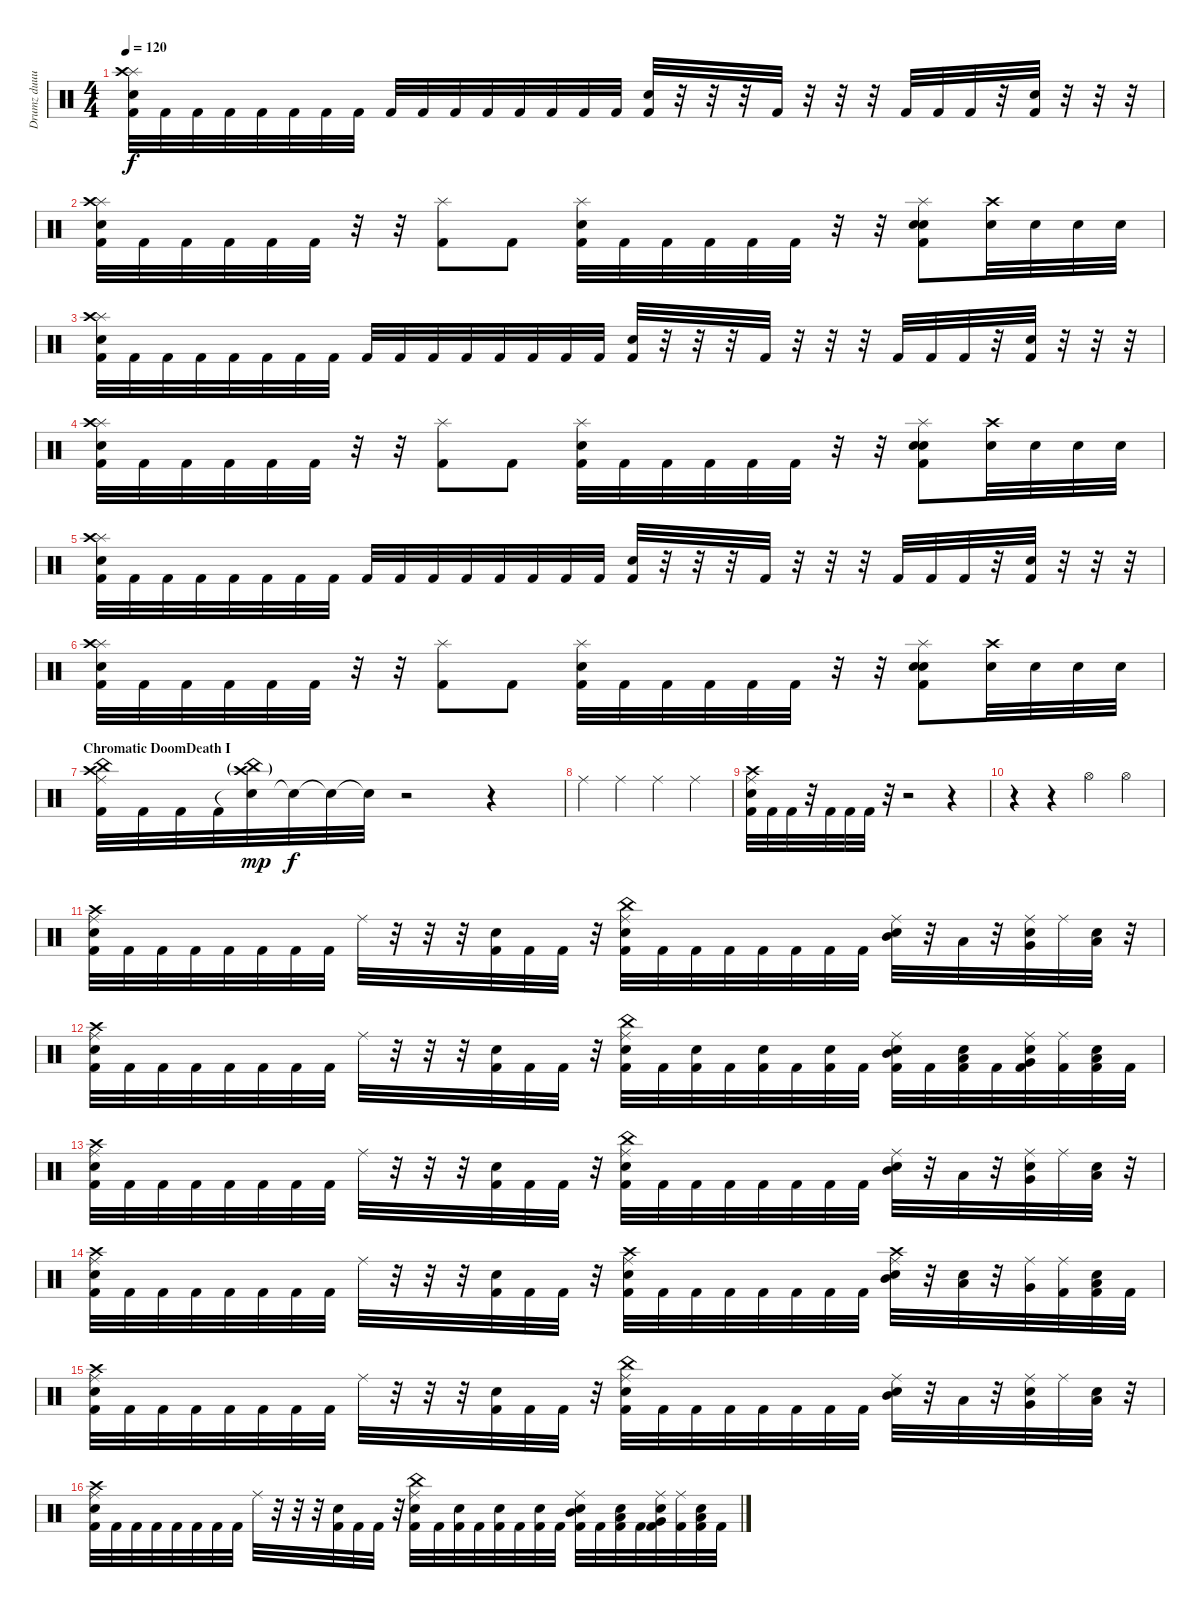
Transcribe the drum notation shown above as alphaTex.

\track ("Drumz duuuuude" "Drumz duuu") {instrument percussion}
\staff {score}
\articulation defaults
\ts (4 4)
\tempo 120
\clef neutral
\ks c
("Splash (hit)" "Kick (hit) 2" "Crash high (hit)" "Electric Snare (hit)").32{dy f} "Kick (hit) 2".32 "Kick (hit) 2".32 "Kick (hit) 2".32 "Kick (hit) 2".32 "Kick (hit) 2".32 "Kick (hit) 2".32 "Kick (hit) 2".32 "Kick (hit) 2".32 "Kick (hit) 2".32 "Kick (hit) 2".32 "Kick (hit) 2".32 "Kick (hit) 2".32 "Kick (hit) 2".32 "Kick (hit) 2".32 "Kick (hit) 2".32 ("Kick (hit) 2" "Snare (hit) 2").32 r.32 r.32 r.32 "Kick (hit) 2".32 r.32 r.32 r.32 "Kick (hit) 2".32 "Kick (hit) 2".32 "Kick (hit) 2".32 r.32 ("Kick (hit) 2" "Snare (hit) 2").32 r.32 r.32 r.32 |
("Splash (hit)" "Kick (hit) 2" "Crash high (hit)" "Snare (hit) 2").32 "Kick (hit) 2".32 "Kick (hit) 2".32 "Kick (hit) 2".32 "Kick (hit) 2".32 "Kick (hit) 2".32 r.32 r.32 ("Splash (hit)" "Kick (hit) 2").8 "Kick (hit) 2".8 ("Splash (hit)" "Kick (hit) 2" "Snare (hit) 2").32 "Kick (hit) 2".32 "Kick (hit) 2".32 "Kick (hit) 2".32 "Kick (hit) 2".32 "Kick (hit) 2".32 r.32 r.32 ("Splash (hit)" "Kick (hit) 2" "Electric Snare (hit)" "Snare (hit) 2").8 ("Crash high (hit)" "Electric Snare (hit)").32 "Electric Snare (hit)".32 "Electric Snare (hit)".32 "Electric Snare (hit)".32 |
("Splash (hit)" "Kick (hit) 2" "Crash high (hit)" "Electric Snare (hit)").32 "Kick (hit) 2".32 "Kick (hit) 2".32 "Kick (hit) 2".32 "Kick (hit) 2".32 "Kick (hit) 2".32 "Kick (hit) 2".32 "Kick (hit) 2".32 "Kick (hit) 2".32 "Kick (hit) 2".32 "Kick (hit) 2".32 "Kick (hit) 2".32 "Kick (hit) 2".32 "Kick (hit) 2".32 "Kick (hit) 2".32 "Kick (hit) 2".32 ("Kick (hit) 2" "Snare (hit) 2").32 r.32 r.32 r.32 "Kick (hit) 2".32 r.32 r.32 r.32 "Kick (hit) 2".32 "Kick (hit) 2".32 "Kick (hit) 2".32 r.32 ("Kick (hit) 2" "Snare (hit) 2").32 r.32 r.32 r.32 |
("Splash (hit)" "Kick (hit) 2" "Crash high (hit)" "Snare (hit) 2").32 "Kick (hit) 2".32 "Kick (hit) 2".32 "Kick (hit) 2".32 "Kick (hit) 2".32 "Kick (hit) 2".32 r.32 r.32 ("Splash (hit)" "Kick (hit) 2").8 "Kick (hit) 2".8 ("Splash (hit)" "Kick (hit) 2" "Snare (hit) 2").32 "Kick (hit) 2".32 "Kick (hit) 2".32 "Kick (hit) 2".32 "Kick (hit) 2".32 "Kick (hit) 2".32 r.32 r.32 ("Splash (hit)" "Kick (hit) 2" "Electric Snare (hit)" "Snare (hit) 2").8 ("Crash high (hit)" "Electric Snare (hit)").32 "Electric Snare (hit)".32 "Electric Snare (hit)".32 "Electric Snare (hit)".32 |
("Splash (hit)" "Kick (hit) 2" "Crash high (hit)" "Electric Snare (hit)").32 "Kick (hit) 2".32 "Kick (hit) 2".32 "Kick (hit) 2".32 "Kick (hit) 2".32 "Kick (hit) 2".32 "Kick (hit) 2".32 "Kick (hit) 2".32 "Kick (hit) 2".32 "Kick (hit) 2".32 "Kick (hit) 2".32 "Kick (hit) 2".32 "Kick (hit) 2".32 "Kick (hit) 2".32 "Kick (hit) 2".32 "Kick (hit) 2".32 ("Kick (hit) 2" "Snare (hit) 2").32 r.32 r.32 r.32 "Kick (hit) 2".32 r.32 r.32 r.32 "Kick (hit) 2".32 "Kick (hit) 2".32 "Kick (hit) 2".32 r.32 ("Kick (hit) 2" "Snare (hit) 2").32 r.32 r.32 r.32 |
("Splash (hit)" "Kick (hit) 2" "Crash high (hit)" "Snare (hit) 2").32 "Kick (hit) 2".32 "Kick (hit) 2".32 "Kick (hit) 2".32 "Kick (hit) 2".32 "Kick (hit) 2".32 r.32 r.32 ("Splash (hit)" "Kick (hit) 2").8 "Kick (hit) 2".8 ("Splash (hit)" "Kick (hit) 2" "Snare (hit) 2").32 "Kick (hit) 2".32 "Kick (hit) 2".32 "Kick (hit) 2".32 "Kick (hit) 2".32 "Kick (hit) 2".32 r.32 r.32 ("Splash (hit)" "Kick (hit) 2" "Electric Snare (hit)" "Snare (hit) 2").8 ("Crash high (hit)" "Electric Snare (hit)").32 "Electric Snare (hit)".32 "Electric Snare (hit)".32 "Electric Snare (hit)".32 |
\section ("" "Chromatic DoomDeath I")
("Ride (middle)" "Kick (hit) 2" "China (hit)" "Crash high (hit)").32 "Kick (hit) 2".32 "Kick (hit) 2".32 "Kick (hit) 2".32 ("Snare (hit)"{t} "China (hit)"{g} "Crash high (hit)"{g}).32{dy mp} "Snare (hit)"{t}.32{dy f} "Snare (hit)"{t}.32 "Snare (hit)"{t}.32 r.2 r.4 |
"Ride (middle)".4 "Ride (middle)".4 "Ride (middle)".4 "Ride (middle)".4 |
("Ride (middle)" "Kick (hit) 2" "Crash high (hit)" "Snare (hit) 2").32 "Kick (hit) 2".32 "Kick (hit) 2".32 r.32 "Kick (hit) 2".32 "Kick (hit) 2".32 "Kick (hit) 2".32 r.32 r.2 r.4 |
r.4 r.4 "Hi-Hat (open)".4 "Hi-Hat (open)".4 |
("Crash high (hit)" "Kick (hit) 2" "Ride (middle)" "Electric Snare (hit)").32 "Kick (hit) 2".32 "Kick (hit) 2".32 "Kick (hit) 2".32 "Kick (hit) 2".32 "Kick (hit) 2".32 "Kick (hit) 2".32 "Kick (hit) 2".32 "Ride (middle)".32 r.32 r.32 r.32 ("Kick (hit) 2" "Electric Snare (hit)").32 "Kick (hit) 2".32 "Kick (hit) 2".32 r.32 ("China (hit)" "Kick (hit) 2" "Ride (middle)" "Electric Snare (hit)").32 "Kick (hit) 2".32 "Kick (hit) 2".32 "Kick (hit) 2".32 "Kick (hit) 2".32 "Kick (hit) 2".32 "Kick (hit) 2".32 "Kick (hit) 2".32 ("Electric Snare (hit)" "Ride (middle)" "Mid Tom (hit)").32 r.32 "Low Tom (hit)".32 r.32 ("Electric Snare (hit)" "Ride (middle)" "Very Low Tom (hit)").32 "Ride (middle)".32 ("Electric Snare (hit)" "Low Floor Tom (hit)").32 r.32 |
("Crash high (hit)" "Kick (hit) 2" "Ride (middle)" "Electric Snare (hit)").32 "Kick (hit) 2".32 "Kick (hit) 2".32 "Kick (hit) 2".32 "Kick (hit) 2".32 "Kick (hit) 2".32 "Kick (hit) 2".32 "Kick (hit) 2".32 "Ride (middle)".32 r.32 r.32 r.32 ("Kick (hit) 2" "Electric Snare (hit)").32 "Kick (hit) 2".32 "Kick (hit) 2".32 r.32 ("China (hit)" "Kick (hit) 2" "Ride (middle)" "Electric Snare (hit)").32 "Kick (hit) 2".32 ("Electric Snare (hit)" "Kick (hit) 2").32 "Kick (hit) 2".32 ("Electric Snare (hit)" "Kick (hit) 2").32 "Kick (hit) 2".32 ("Electric Snare (hit)" "Kick (hit) 2").32 "Kick (hit) 2".32 ("Electric Snare (hit)" "Kick (hit) 2" "Ride (middle)" "Mid Tom (hit)").32 "Kick (hit) 2".32 ("Electric Snare (hit)" "Kick (hit) 2" "Low Tom (hit)").32 "Kick (hit) 2".32 ("Electric Snare (hit)" "Kick (hit) 2" "Ride (middle)" "Very Low Tom (hit)").32 ("Kick (hit) 2" "Ride (middle)").32 ("Electric Snare (hit)" "Kick (hit) 2" "Low Floor Tom (hit)").32 "Kick (hit) 2".32 |
("Crash high (hit)" "Kick (hit) 2" "Ride (middle)" "Electric Snare (hit)").32 "Kick (hit) 2".32 "Kick (hit) 2".32 "Kick (hit) 2".32 "Kick (hit) 2".32 "Kick (hit) 2".32 "Kick (hit) 2".32 "Kick (hit) 2".32 "Ride (middle)".32 r.32 r.32 r.32 ("Kick (hit) 2" "Electric Snare (hit)").32 "Kick (hit) 2".32 "Kick (hit) 2".32 r.32 ("China (hit)" "Kick (hit) 2" "Ride (middle)" "Electric Snare (hit)").32 "Kick (hit) 2".32 "Kick (hit) 2".32 "Kick (hit) 2".32 "Kick (hit) 2".32 "Kick (hit) 2".32 "Kick (hit) 2".32 "Kick (hit) 2".32 ("Electric Snare (hit)" "Ride (middle)" "Mid Tom (hit)").32 r.32 "Low Tom (hit)".32 r.32 ("Electric Snare (hit)" "Ride (middle)" "Very Low Tom (hit)").32 "Ride (middle)".32 ("Electric Snare (hit)" "Low Floor Tom (hit)").32 r.32 |
("Crash high (hit)" "Kick (hit) 2" "Ride (middle)" "Electric Snare (hit)").32 "Kick (hit) 2".32 "Kick (hit) 2".32 "Kick (hit) 2".32 "Kick (hit) 2".32 "Kick (hit) 2".32 "Kick (hit) 2".32 "Kick (hit) 2".32 "Ride (middle)".32 r.32 r.32 r.32 ("Kick (hit) 2" "Electric Snare (hit)").32 "Kick (hit) 2".32 "Kick (hit) 2".32 r.32 ("Kick (hit) 2" "Ride (middle)" "Crash high (hit)" "Electric Snare (hit)").32 "Kick (hit) 2".32 "Kick (hit) 2".32 "Kick (hit) 2".32 "Kick (hit) 2".32 "Kick (hit) 2".32 "Kick (hit) 2".32 "Kick (hit) 2".32 ("Electric Snare (hit)" "Ride (middle)" "Crash high (hit)" "Mid Tom (hit)").32 r.32 ("Snare (hit) 2" "Low Tom (hit)").32 r.32 ("Ride (middle)" "Very Low Tom (hit)").32 ("Kick (hit) 2" "Ride (middle)").32 ("Snare (hit) 2" "Kick (hit) 2" "Low Floor Tom (hit)").32 "Kick (hit) 2".32 |
("Crash high (hit)" "Kick (hit) 2" "Ride (middle)" "Electric Snare (hit)").32 "Kick (hit) 2".32 "Kick (hit) 2".32 "Kick (hit) 2".32 "Kick (hit) 2".32 "Kick (hit) 2".32 "Kick (hit) 2".32 "Kick (hit) 2".32 "Ride (middle)".32 r.32 r.32 r.32 ("Kick (hit) 2" "Electric Snare (hit)").32 "Kick (hit) 2".32 "Kick (hit) 2".32 r.32 ("China (hit)" "Kick (hit) 2" "Ride (middle)" "Electric Snare (hit)").32 "Kick (hit) 2".32 "Kick (hit) 2".32 "Kick (hit) 2".32 "Kick (hit) 2".32 "Kick (hit) 2".32 "Kick (hit) 2".32 "Kick (hit) 2".32 ("Electric Snare (hit)" "Ride (middle)" "Mid Tom (hit)").32 r.32 "Low Tom (hit)".32 r.32 ("Electric Snare (hit)" "Ride (middle)" "Very Low Tom (hit)").32 "Ride (middle)".32 ("Electric Snare (hit)" "Low Floor Tom (hit)").32 r.32 |
("Crash high (hit)" "Kick (hit) 2" "Ride (middle)" "Electric Snare (hit)").32 "Kick (hit) 2".32 "Kick (hit) 2".32 "Kick (hit) 2".32 "Kick (hit) 2".32 "Kick (hit) 2".32 "Kick (hit) 2".32 "Kick (hit) 2".32 "Ride (middle)".32 r.32 r.32 r.32 ("Kick (hit) 2" "Electric Snare (hit)").32 "Kick (hit) 2".32 "Kick (hit) 2".32 r.32 ("China (hit)" "Kick (hit) 2" "Ride (middle)" "Electric Snare (hit)").32 "Kick (hit) 2".32 ("Electric Snare (hit)" "Kick (hit) 2").32 "Kick (hit) 2".32 ("Electric Snare (hit)" "Kick (hit) 2").32 "Kick (hit) 2".32 ("Electric Snare (hit)" "Kick (hit) 2").32 "Kick (hit) 2".32 ("Electric Snare (hit)" "Kick (hit) 2" "Ride (middle)" "Mid Tom (hit)").32 "Kick (hit) 2".32 ("Electric Snare (hit)" "Kick (hit) 2" "Low Tom (hit)").32 "Kick (hit) 2".32 ("Electric Snare (hit)" "Kick (hit) 2" "Ride (middle)" "Very Low Tom (hit)").32 ("Kick (hit) 2" "Ride (middle)").32 ("Electric Snare (hit)" "Kick (hit) 2" "Low Floor Tom (hit)").32 "Kick (hit) 2".32
